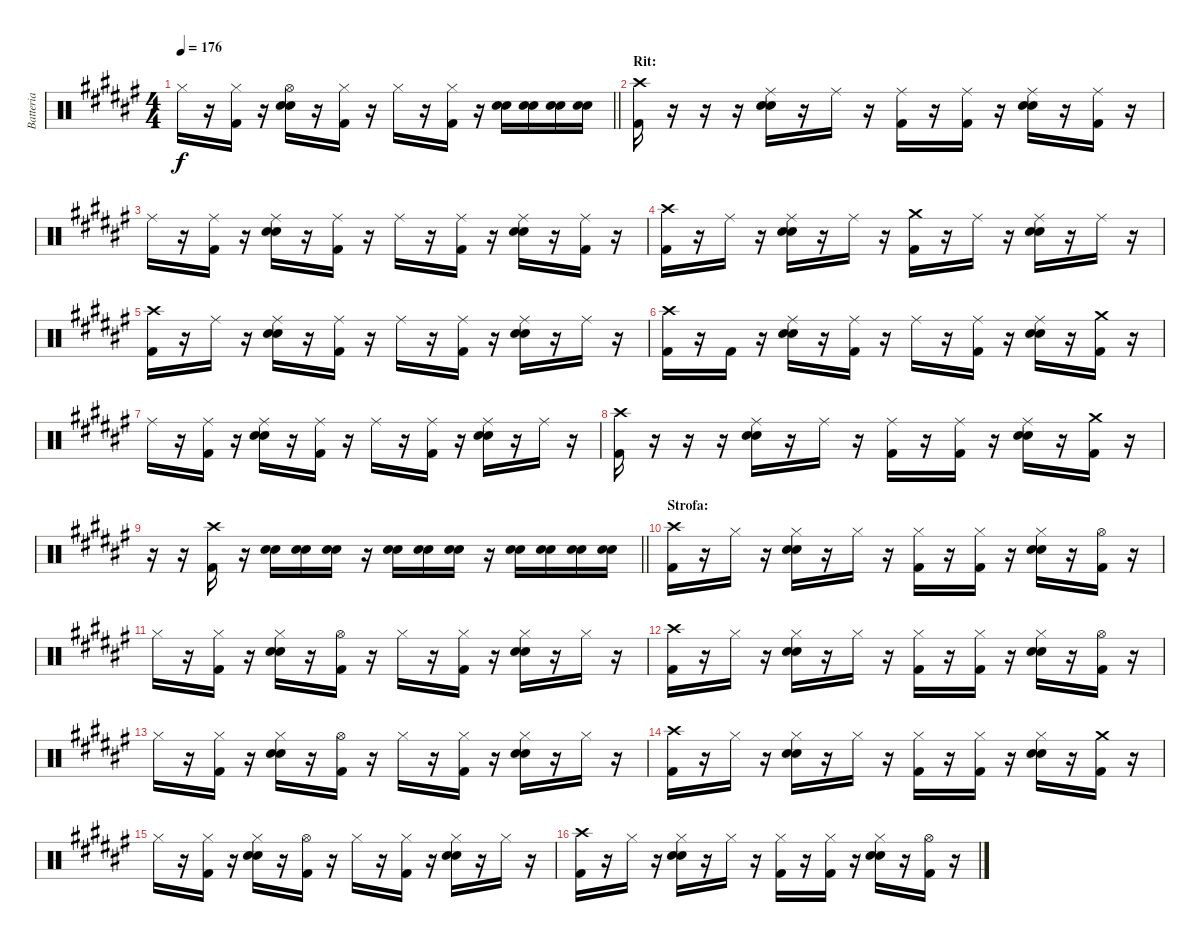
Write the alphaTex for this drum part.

\track ("Batteria" "Batteria") {instrument percussion}
\staff {score}
\articulation defaults
\ts (4 4)
\tempo 176
\clef neutral
\barLineRight lightlight
\ks f# "Hi-Hat (closed)".16{dy f}
r.16 ("Kick (hit) 2" "Hi-Hat (closed)").16 r.16 ("Snare (hit) 2" "Snare (hit) 2" "Hi-Hat (open)").16 r.16 ("Kick (hit) 2" "Hi-Hat (closed)").16 r.16 "Hi-Hat (closed)".16 r.16 ("Kick (hit) 2" "Hi-Hat (closed)").16 r.16 ("Snare (hit) 2" "Snare (hit) 2").16 ("Snare (hit) 2" "Snare (hit) 2").16 ("Snare (hit) 2" "Snare (hit) 2").16 ("Snare (hit) 2" "Snare (hit) 2").16 |
\section ("" "Rit:")
("Kick (hit) 2" "Crash high (hit)").16 r.16 r.16 r.16 ("Snare (hit) 2" "Snare (hit) 2" "Ride (middle)").16 r.16 "Ride (middle)".16 r.16 ("Kick (hit) 2" "Ride (middle)").16 r.16 ("Kick (hit) 2" "Ride (middle)").16 r.16 ("Snare (hit) 2" "Snare (hit) 2" "Ride (middle)").16 r.16 ("Kick (hit) 2" "Ride (middle)").16 r.16 |
"Ride (middle)".16 r.16 ("Kick (hit) 2" "Ride (middle)").16 r.16 ("Snare (hit) 2" "Snare (hit) 2" "Ride (middle)").16 r.16 ("Kick (hit) 2" "Ride (middle)").16 r.16 "Ride (middle)".16 r.16 ("Kick (hit) 2" "Ride (middle)").16 r.16 ("Snare (hit) 2" "Snare (hit) 2" "Ride (middle)").16 r.16 ("Kick (hit) 2" "Ride (middle)").16 r.16 |
("Kick (hit) 2" "Crash high (hit)").16 r.16 "Ride (middle)".16 r.16 ("Snare (hit) 2" "Snare (hit) 2" "Ride (middle)").16 r.16 "Ride (middle)".16 r.16 ("Kick (hit) 2" "Crash medium (hit)").16 r.16 "Ride (middle)".16 r.16 ("Snare (hit) 2" "Snare (hit) 2" "Ride (middle)").16 r.16 "Ride (middle)".16 r.16 |
("Kick (hit) 2" "Crash high (hit)").16 r.16 "Ride (middle)".16 r.16 ("Snare (hit) 2" "Snare (hit) 2" "Ride (middle)").16 r.16 ("Kick (hit) 2" "Ride (middle)").16 r.16 "Ride (middle)".16 r.16 ("Kick (hit) 2" "Ride (middle)").16 r.16 ("Snare (hit) 2" "Snare (hit) 2" "Ride (middle)").16 r.16 "Ride (middle)".16 r.16 |
("Kick (hit) 2" "Crash high (hit)").16 r.16 "Kick (hit) 2".16 r.16 ("Snare (hit) 2" "Snare (hit) 2" "Ride (middle)").16 r.16 ("Kick (hit) 2" "Ride (middle)").16 r.16 "Ride (middle)".16 r.16 ("Kick (hit) 2" "Ride (middle)").16 r.16 ("Snare (hit) 2" "Snare (hit) 2" "Ride (middle)").16 r.16 ("Kick (hit) 2" "Crash medium (hit)").16 r.16 |
"Ride (middle)".16 r.16 ("Kick (hit) 2" "Ride (middle)").16 r.16 ("Snare (hit) 2" "Snare (hit) 2" "Ride (middle)").16 r.16 ("Kick (hit) 2" "Ride (middle)").16 r.16 "Ride (middle)".16 r.16 ("Kick (hit) 2" "Ride (middle)").16 r.16 ("Snare (hit) 2" "Snare (hit) 2" "Ride (middle)").16 r.16 "Ride (middle)".16 r.16 |
("Kick (hit) 2" "Crash high (hit)").16 r.16 r.16 r.16 ("Snare (hit) 2" "Snare (hit) 2" "Ride (middle)").16 r.16 "Ride (middle)".16 r.16 ("Kick (hit) 2" "Ride (middle)").16 r.16 ("Kick (hit) 2" "Ride (middle)").16 r.16 ("Snare (hit) 2" "Snare (hit) 2" "Ride (middle)").16 r.16 ("Kick (hit) 2" "Crash medium (hit)").16 r.16 |
\barLineRight lightlight
r.16 r.16 ("Kick (hit) 2" "Crash high (hit)").16 r.16 ("Snare (hit) 2" "Snare (hit) 2").16 ("Snare (hit) 2" "Snare (hit) 2").16 ("Snare (hit) 2" "Snare (hit) 2").16 r.16 ("Snare (hit) 2" "Snare (hit) 2").16 ("Snare (hit) 2" "Snare (hit) 2").16 ("Snare (hit) 2" "Snare (hit) 2").16 r.16 ("Snare (hit) 2" "Snare (hit) 2").16 ("Snare (hit) 2" "Snare (hit) 2").16 ("Snare (hit) 2" "Snare (hit) 2").16 ("Snare (hit) 2" "Snare (hit) 2").16 |
\section ("" "Strofa:")
("Kick (hit) 2" "Crash high (hit)").16 r.16 "Hi-Hat (closed)".16 r.16 ("Snare (hit) 2" "Snare (hit) 2" "Hi-Hat (closed)").16 r.16 "Hi-Hat (closed)".16 r.16 ("Kick (hit) 2" "Hi-Hat (closed)").16 r.16 ("Kick (hit) 2" "Hi-Hat (closed)").16 r.16 ("Snare (hit) 2" "Snare (hit) 2" "Hi-Hat (closed)").16 r.16 ("Kick (hit) 2" "Hi-Hat (open)").16 r.16 |
"Hi-Hat (closed)".16 r.16 ("Kick (hit) 2" "Hi-Hat (closed)").16 r.16 ("Snare (hit) 2" "Snare (hit) 2" "Hi-Hat (closed)").16 r.16 ("Kick (hit) 2" "Hi-Hat (open)").16 r.16 "Hi-Hat (closed)".16 r.16 ("Kick (hit) 2" "Hi-Hat (closed)").16 r.16 ("Snare (hit) 2" "Snare (hit) 2" "Hi-Hat (closed)").16 r.16 "Hi-Hat (closed)".16 r.16 |
("Kick (hit) 2" "Crash high (hit)").16 r.16 "Hi-Hat (closed)".16 r.16 ("Snare (hit) 2" "Snare (hit) 2" "Hi-Hat (closed)").16 r.16 "Hi-Hat (closed)".16 r.16 ("Kick (hit) 2" "Hi-Hat (closed)").16 r.16 ("Kick (hit) 2" "Hi-Hat (closed)").16 r.16 ("Snare (hit) 2" "Snare (hit) 2" "Hi-Hat (closed)").16 r.16 ("Kick (hit) 2" "Hi-Hat (open)").16 r.16 |
"Hi-Hat (closed)".16 r.16 ("Kick (hit) 2" "Hi-Hat (closed)").16 r.16 ("Snare (hit) 2" "Snare (hit) 2" "Hi-Hat (closed)").16 r.16 ("Kick (hit) 2" "Hi-Hat (open)").16 r.16 "Hi-Hat (closed)".16 r.16 ("Kick (hit) 2" "Hi-Hat (closed)").16 r.16 ("Snare (hit) 2" "Snare (hit) 2" "Hi-Hat (closed)").16 r.16 "Hi-Hat (closed)".16 r.16 |
("Kick (hit) 2" "Crash high (hit)").16 r.16 "Hi-Hat (closed)".16 r.16 ("Snare (hit) 2" "Snare (hit) 2" "Hi-Hat (closed)").16 r.16 "Hi-Hat (closed)".16 r.16 ("Kick (hit) 2" "Hi-Hat (closed)").16 r.16 ("Kick (hit) 2" "Hi-Hat (closed)").16 r.16 ("Snare (hit) 2" "Snare (hit) 2" "Hi-Hat (closed)").16 r.16 ("Kick (hit) 2" "Crash medium (hit)").16 r.16 |
"Hi-Hat (closed)".16 r.16 ("Kick (hit) 2" "Hi-Hat (closed)").16 r.16 ("Snare (hit) 2" "Snare (hit) 2" "Hi-Hat (closed)").16 r.16 ("Kick (hit) 2" "Hi-Hat (open)").16 r.16 "Hi-Hat (closed)".16 r.16 ("Kick (hit) 2" "Hi-Hat (closed)").16 r.16 ("Snare (hit) 2" "Snare (hit) 2" "Hi-Hat (closed)").16 r.16 "Hi-Hat (closed)".16 r.16 |
("Kick (hit) 2" "Crash high (hit)").16 r.16 "Hi-Hat (closed)".16 r.16 ("Snare (hit) 2" "Snare (hit) 2" "Hi-Hat (closed)").16 r.16 "Hi-Hat (closed)".16 r.16 ("Kick (hit) 2" "Hi-Hat (closed)").16 r.16 ("Kick (hit) 2" "Hi-Hat (closed)").16 r.16 ("Snare (hit) 2" "Snare (hit) 2" "Hi-Hat (closed)").16 r.16 ("Kick (hit) 2" "Hi-Hat (open)").16 r.16
